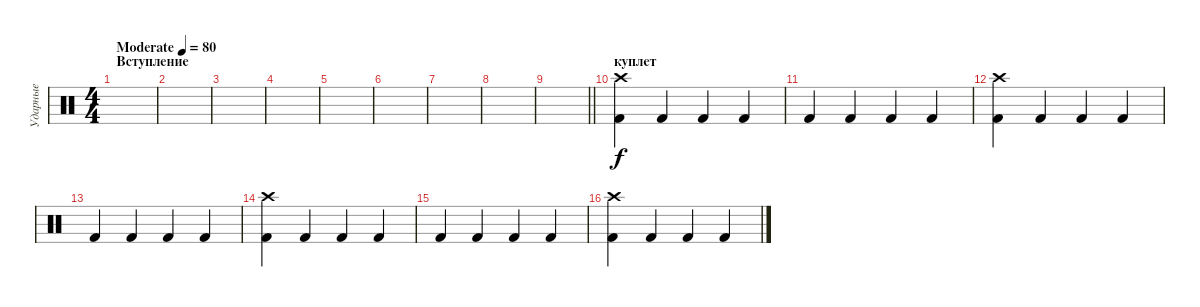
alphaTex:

\track ("Ударные" "Ударные") {instrument percussion}
\staff {score}
\articulation defaults
\ts (4 4)
\section ("" "Вступление")
\tempo (80 "Moderate")
\clef neutral
\ks c
|
|
|
|
|
|
|
|
\barLineRight lightlight
|
\section ("" "куплет")
("Crash high (hit)" "Kick (hit) 2").4 "Kick (hit) 2".4 "Kick (hit) 2".4 "Kick (hit) 2".4 |
"Kick (hit) 2".4 "Kick (hit) 2".4 "Kick (hit) 2".4 "Kick (hit) 2".4 |
("Crash high (hit)" "Kick (hit) 2").4 "Kick (hit) 2".4 "Kick (hit) 2".4 "Kick (hit) 2".4 |
"Kick (hit) 2".4 "Kick (hit) 2".4 "Kick (hit) 2".4 "Kick (hit) 2".4 |
("Crash high (hit)" "Kick (hit) 2").4 "Kick (hit) 2".4 "Kick (hit) 2".4 "Kick (hit) 2".4 |
"Kick (hit) 2".4 "Kick (hit) 2".4 "Kick (hit) 2".4 "Kick (hit) 2".4 |
("Crash high (hit)" "Kick (hit) 2").4 "Kick (hit) 2".4 "Kick (hit) 2".4 "Kick (hit) 2".4
